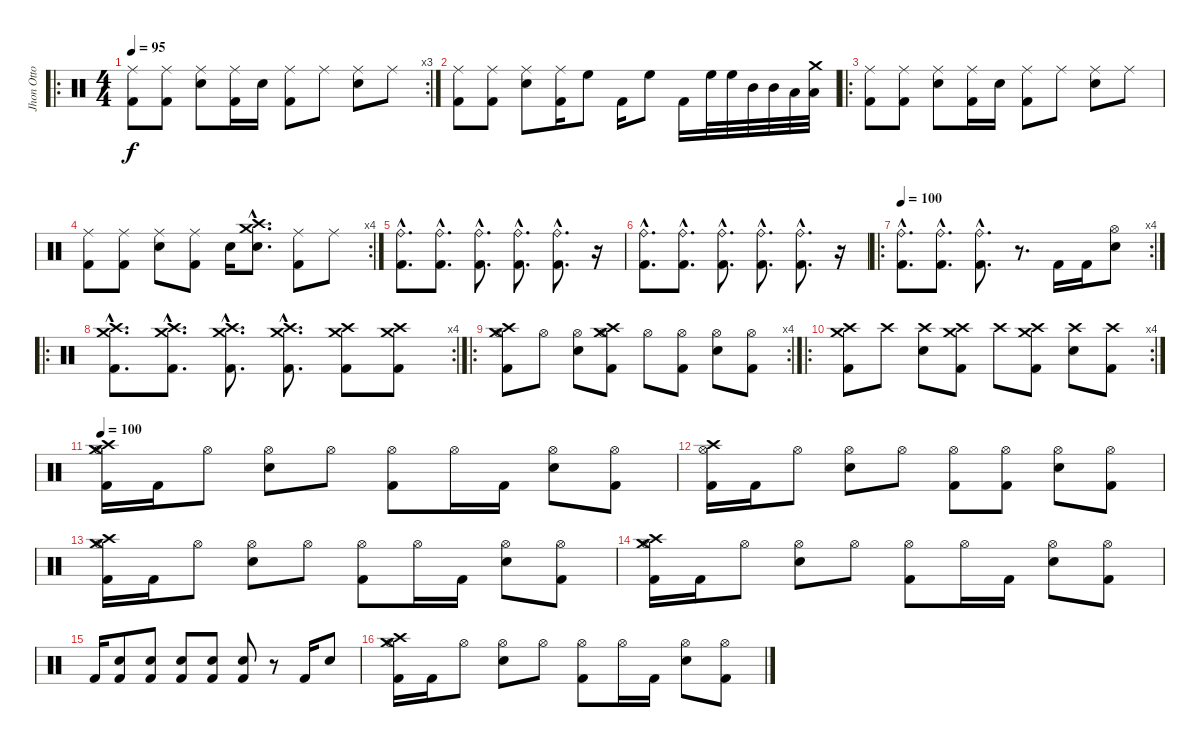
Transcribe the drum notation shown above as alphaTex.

\track ("Jhon Otto" "Jhon Otto") {instrument percussion}
\staff {score}
\articulation defaults
\ro
\rc 3
\ts (4 4)
\tempo 95
\clef neutral
\ks c
("Ride (middle)" "Kick (hit) 2").8{dy f} ("Ride (middle)" "Kick (hit) 2").8 ("Ride (middle)" "Snare (hit) 2").8 ("Ride (middle)" "Kick (hit) 2").16 "Snare (hit) 2".16 ("Ride (middle)" "Kick (hit) 2").8 "Ride (middle)".8 ("Ride (middle)" "Snare (hit) 2").8 "Ride (middle)".8 |
("Ride (middle)" "Kick (hit) 2").8 ("Ride (middle)" "Kick (hit) 2").8 ("Ride (middle)" "Snare (hit) 2").8 ("Ride (middle)" "Kick (hit) 2").16 "High Floor Tom (hit)".8 "Kick (hit) 2".16 "High Floor Tom (hit)".8 "Kick (hit) 2".16 "High Floor Tom (hit)".32 "High Floor Tom (hit)".32 "Mid Tom (hit)".32 "Mid Tom (hit)".32 "Low Tom (hit)".32 ("Crash medium (hit)" "Low Tom (hit)").32 |
\ro
("Ride (middle)" "Kick (hit) 2").8 ("Ride (middle)" "Kick (hit) 2").8 ("Ride (middle)" "Snare (hit) 2").8 ("Ride (middle)" "Kick (hit) 2").16 "Snare (hit) 2".16 ("Ride (middle)" "Kick (hit) 2").8 "Ride (middle)".8 ("Ride (middle)" "Snare (hit) 2").8 "Ride (middle)".8 |
\rc 4
("Ride (middle)" "Kick (hit) 2").8 ("Ride (middle)" "Kick (hit) 2").8 ("Ride (middle)" "Snare (hit) 2").8 ("Ride (middle)" "Kick (hit) 2").8 "Snare (hit) 2".16 ("Crash high (hit)"{hac} "Crash medium (hit)"{hac} "Snare (hit) 2"{hac}).8{d} ("Kick (hit) 2" "Ride (middle)").8 "Ride (middle)".8 |
("Kick (hit) 2"{hac} "Ride (bell)"{hac}).8{d} ("Kick (hit) 2"{hac} "Ride (bell)"{hac}).8{d} ("Kick (hit) 2"{hac} "Ride (bell)"{hac}).8{d} ("Kick (hit) 2"{hac} "Ride (bell)"{hac}).8{d} ("Kick (hit) 2"{hac} "Ride (bell)"{hac}).8{d} r.16 |
("Kick (hit) 2"{hac} "Ride (bell)"{hac}).8{d} ("Kick (hit) 2"{hac} "Ride (bell)"{hac}).8{d} ("Kick (hit) 2"{hac} "Ride (bell)"{hac}).8{d} ("Kick (hit) 2"{hac} "Ride (bell)"{hac}).8{d} ("Kick (hit) 2"{hac} "Ride (bell)"{hac}).8{d} r.16 |
\ro
\rc 4
\tempo 100
("Kick (hit) 2"{hac} "Ride (bell)"{hac}).8{d} ("Kick (hit) 2"{hac} "Ride (bell)"{hac}).8{d} ("Kick (hit) 2"{hac} "Ride (bell)"{hac}).8{d} r.8{d} "Kick (hit) 2".16 "Kick (hit) 2".16 ("Hi-Hat (open)" "Snare (hit) 2").8 |
\ro
\rc 4
("Crash high (hit)"{hac} "Kick (hit) 2"{hac} "Crash medium (hit)"{hac}).8{d} ("Crash high (hit)"{hac} "Kick (hit) 2"{hac} "Crash medium (hit)"{hac}).8{d} ("Crash high (hit)"{hac} "Kick (hit) 2"{hac} "Crash medium (hit)"{hac}).8{d} ("Crash high (hit)"{hac} "Kick (hit) 2"{hac} "Crash medium (hit)"{hac}).8{d} ("Crash high (hit)" "Kick (hit) 2" "Crash medium (hit)").8 ("Crash high (hit)" "Kick (hit) 2" "Crash medium (hit)").8 |
\ro
\rc 4
("Crash medium (hit)" "Crash high (hit)" "Hi-Hat (open)" "Kick (hit) 2").8 "Hi-Hat (open)".8 ("Hi-Hat (open)" "Snare (hit) 2").8 ("Crash medium (hit)" "Crash high (hit)" "Hi-Hat (open)" "Kick (hit) 2").8 "Hi-Hat (open)".8 ("Hi-Hat (open)" "Kick (hit) 2").8 ("Hi-Hat (open)" "Snare (hit) 2").8 ("Hi-Hat (open)" "Kick (hit) 2").8 |
\ro
\rc 4
("Crash medium (hit)" "Crash high (hit)" "Kick (hit) 2").8 "Crash high (hit)".8 ("Crash high (hit)" "Snare (hit) 2").8 ("Crash medium (hit)" "Crash high (hit)" "Kick (hit) 2").8 "Crash high (hit)".8 ("Crash medium (hit)" "Crash high (hit)" "Kick (hit) 2").8 ("Crash high (hit)" "Snare (hit) 2").8 ("Crash high (hit)" "Kick (hit) 2").8 |
\tempo 100
("Crash high (hit)" "Hi-Hat (open)" "Kick (hit) 2" "Crash medium (hit)").16 "Kick (hit) 2".16 "Hi-Hat (open)".8 ("Hi-Hat (open)" "Snare (hit) 2").8 "Hi-Hat (open)".8 ("Hi-Hat (open)" "Kick (hit) 2").8 "Hi-Hat (open)".16 "Kick (hit) 2".16 ("Hi-Hat (open)" "Snare (hit) 2").8 ("Hi-Hat (open)" "Kick (hit) 2").8 |
("Crash high (hit)" "Hi-Hat (open)" "Kick (hit) 2").16 "Kick (hit) 2".16 "Hi-Hat (open)".8 ("Hi-Hat (open)" "Snare (hit) 2").8 "Hi-Hat (open)".8 ("Hi-Hat (open)" "Kick (hit) 2").8 ("Hi-Hat (open)" "Kick (hit) 2").8 ("Hi-Hat (open)" "Snare (hit) 2").8 ("Hi-Hat (open)" "Kick (hit) 2").8 |
("Crash high (hit)" "Hi-Hat (open)" "Kick (hit) 2" "Crash medium (hit)").16 "Kick (hit) 2".16 "Hi-Hat (open)".8 ("Hi-Hat (open)" "Snare (hit) 2").8 "Hi-Hat (open)".8 ("Hi-Hat (open)" "Kick (hit) 2").8 "Hi-Hat (open)".16 "Kick (hit) 2".16 ("Hi-Hat (open)" "Snare (hit) 2").8 ("Hi-Hat (open)" "Kick (hit) 2").8 |
("Crash high (hit)" "Hi-Hat (open)" "Kick (hit) 2" "Crash medium (hit)").16 "Kick (hit) 2".16 "Hi-Hat (open)".8 ("Hi-Hat (open)" "Snare (hit) 2").8 "Hi-Hat (open)".8 ("Hi-Hat (open)" "Kick (hit) 2").8 "Hi-Hat (open)".16 "Kick (hit) 2".16 ("Hi-Hat (open)" "Snare (hit) 2").8 ("Hi-Hat (open)" "Kick (hit) 2").8 |
"Kick (hit) 2".16 ("Snare (hit) 2" "Kick (hit) 2").8 ("Snare (hit) 2" "Kick (hit) 2").8 ("Snare (hit) 2" "Kick (hit) 2").8 ("Snare (hit) 2" "Kick (hit) 2").8 ("Snare (hit) 2" "Kick (hit) 2").8 r.8 "Kick (hit) 2".16 "Snare (hit) 2".8 |
("Crash high (hit)" "Hi-Hat (open)" "Kick (hit) 2" "Crash medium (hit)").16 "Kick (hit) 2".16 "Hi-Hat (open)".8 ("Hi-Hat (open)" "Snare (hit) 2").8 "Hi-Hat (open)".8 ("Hi-Hat (open)" "Kick (hit) 2").8 "Hi-Hat (open)".16 "Kick (hit) 2".16 ("Hi-Hat (open)" "Snare (hit) 2").8 ("Hi-Hat (open)" "Kick (hit) 2").8
